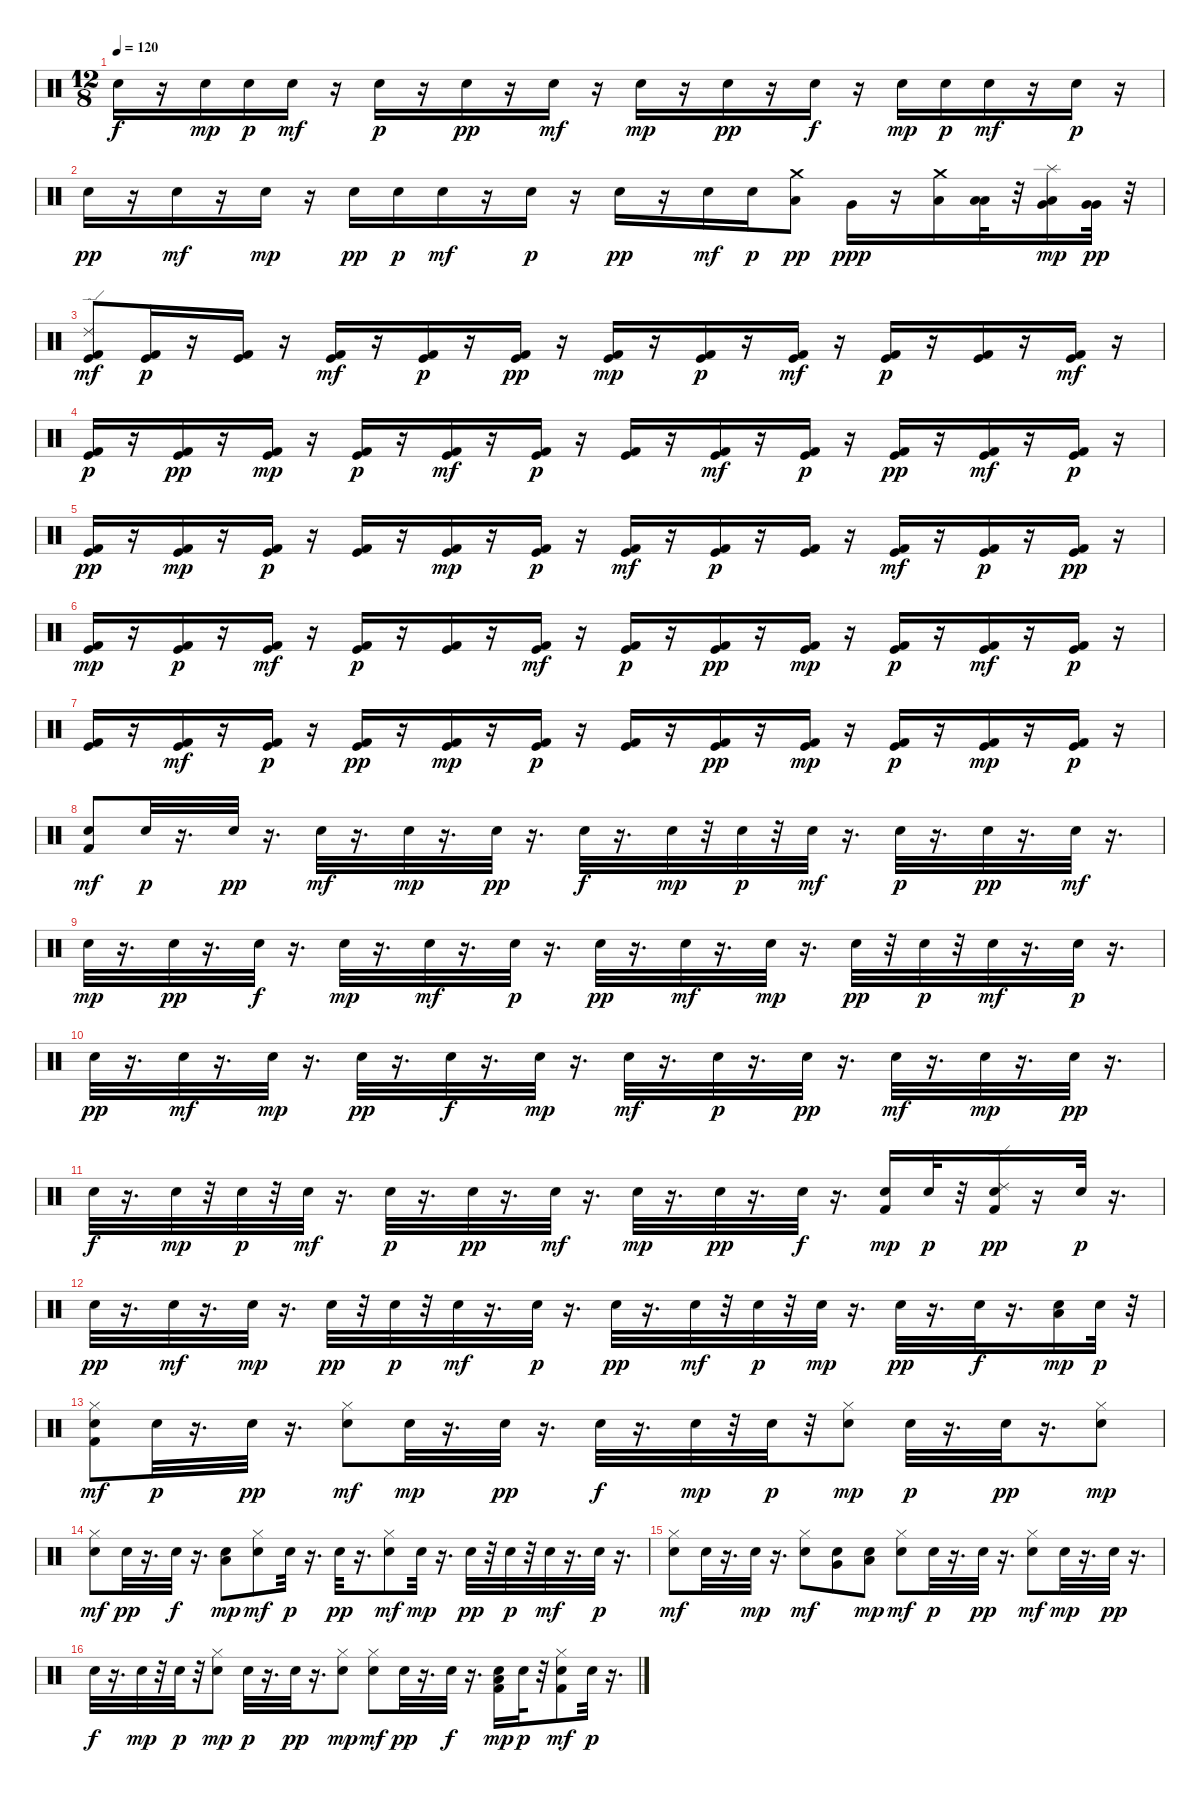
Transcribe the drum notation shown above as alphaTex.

\track "" {instrument percussion}
\staff {score}
\articulation defaults
\ts (12 8)
\tempo 120
\clef neutral
\ks c "Snare (hit) 2".16{dy f}
r.16 "Snare (hit) 2".16{dy mp} "Snare (hit) 2".16{dy p} "Snare (hit) 2".16{dy mf} r.16 "Snare (hit) 2".16{dy p} r.16 "Snare (hit) 2".16{dy pp} r.16 "Snare (hit) 2".16{dy mf} r.16 "Snare (hit) 2".16{dy mp} r.16 "Snare (hit) 2".16{dy pp} r.16 "Snare (hit) 2".16{dy f} r.16 "Snare (hit) 2".16{dy mp} "Snare (hit) 2".16{dy p} "Snare (hit) 2".16{dy mf} r.16 "Snare (hit) 2".16{dy p} r.16 |
"Snare (hit) 2".16{dy pp} r.16 "Snare (hit) 2".16{dy mf} r.16 "Snare (hit) 2".16{dy mp} r.16 "Snare (hit) 2".16{dy pp} "Snare (hit) 2".16{dy p} "Snare (hit) 2".16{dy mf} r.16 "Snare (hit) 2".16{dy p} r.16 "Snare (hit) 2".16{dy pp} r.16 "Snare (hit) 2".16{dy mf} "Snare (hit) 2".16{dy p} ("Low Tom (hit)" "Crash medium (hit)").8{dy pp} "Very Low Tom (hit)".16{dy ppp} r.16 ("Low Tom (hit)" "Crash medium (hit)").16 ("Low Tom (hit)" "Low Tom (hit)").32 r.32 ("Low Tom (hit)" "Very Low Tom (hit)" "Splash (hit)").16{dy mp} ("Very Low Tom (hit)" "Very Low Tom (hit)").32{dy pp} r.32 |
("Kick (hit) 2" "Kick (hit)" "Ride (edge) 2").8{dy mf} ("Kick (hit) 2" "Kick (hit)").16{dy p} r.16 ("Kick (hit) 2" "Kick (hit)").16 r.16 ("Kick (hit) 2" "Kick (hit)").16{dy mf} r.16 ("Kick (hit) 2" "Kick (hit)").16{dy p} r.16 ("Kick (hit) 2" "Kick (hit)").16{dy pp} r.16 ("Kick (hit) 2" "Kick (hit)").16{dy mp} r.16 ("Kick (hit) 2" "Kick (hit)").16{dy p} r.16 ("Kick (hit) 2" "Kick (hit)").16{dy mf} r.16 ("Kick (hit) 2" "Kick (hit)").16{dy p} r.16 ("Kick (hit) 2" "Kick (hit)").16 r.16 ("Kick (hit) 2" "Kick (hit)").16{dy mf} r.16 |
("Kick (hit) 2" "Kick (hit)").16{dy p} r.16 ("Kick (hit) 2" "Kick (hit)").16{dy pp} r.16 ("Kick (hit) 2" "Kick (hit)").16{dy mp} r.16 ("Kick (hit) 2" "Kick (hit)").16{dy p} r.16 ("Kick (hit) 2" "Kick (hit)").16{dy mf} r.16 ("Kick (hit) 2" "Kick (hit)").16{dy p} r.16 ("Kick (hit) 2" "Kick (hit)").16 r.16 ("Kick (hit) 2" "Kick (hit)").16{dy mf} r.16 ("Kick (hit) 2" "Kick (hit)").16{dy p} r.16 ("Kick (hit) 2" "Kick (hit)").16{dy pp} r.16 ("Kick (hit) 2" "Kick (hit)").16{dy mf} r.16 ("Kick (hit) 2" "Kick (hit)").16{dy p} r.16 |
("Kick (hit) 2" "Kick (hit)").16{dy pp} r.16 ("Kick (hit) 2" "Kick (hit)").16{dy mp} r.16 ("Kick (hit) 2" "Kick (hit)").16{dy p} r.16 ("Kick (hit) 2" "Kick (hit)").16 r.16 ("Kick (hit) 2" "Kick (hit)").16{dy mp} r.16 ("Kick (hit) 2" "Kick (hit)").16{dy p} r.16 ("Kick (hit) 2" "Kick (hit)").16{dy mf} r.16 ("Kick (hit) 2" "Kick (hit)").16{dy p} r.16 ("Kick (hit) 2" "Kick (hit)").16 r.16 ("Kick (hit) 2" "Kick (hit)").16{dy mf} r.16 ("Kick (hit) 2" "Kick (hit)").16{dy p} r.16 ("Kick (hit) 2" "Kick (hit)").16{dy pp} r.16 |
("Kick (hit) 2" "Kick (hit)").16{dy mp} r.16 ("Kick (hit) 2" "Kick (hit)").16{dy p} r.16 ("Kick (hit) 2" "Kick (hit)").16{dy mf} r.16 ("Kick (hit) 2" "Kick (hit)").16{dy p} r.16 ("Kick (hit) 2" "Kick (hit)").16 r.16 ("Kick (hit) 2" "Kick (hit)").16{dy mf} r.16 ("Kick (hit) 2" "Kick (hit)").16{dy p} r.16 ("Kick (hit) 2" "Kick (hit)").16{dy pp} r.16 ("Kick (hit) 2" "Kick (hit)").16{dy mp} r.16 ("Kick (hit) 2" "Kick (hit)").16{dy p} r.16 ("Kick (hit) 2" "Kick (hit)").16{dy mf} r.16 ("Kick (hit) 2" "Kick (hit)").16{dy p} r.16 |
("Kick (hit) 2" "Kick (hit)").16 r.16 ("Kick (hit) 2" "Kick (hit)").16{dy mf} r.16 ("Kick (hit) 2" "Kick (hit)").16{dy p} r.16 ("Kick (hit) 2" "Kick (hit)").16{dy pp} r.16 ("Kick (hit) 2" "Kick (hit)").16{dy mp} r.16 ("Kick (hit) 2" "Kick (hit)").16{dy p} r.16 ("Kick (hit) 2" "Kick (hit)").16 r.16 ("Kick (hit) 2" "Kick (hit)").16{dy pp} r.16 ("Kick (hit) 2" "Kick (hit)").16{dy mp} r.16 ("Kick (hit) 2" "Kick (hit)").16{dy p} r.16 ("Kick (hit) 2" "Kick (hit)").16{dy mp} r.16 ("Kick (hit) 2" "Kick (hit)").16{dy p} r.16 |
("Kick (hit) 2" "Snare (hit) 2").8{dy mf} "Snare (hit) 2".32{dy p} r.16{d} "Snare (hit) 2".32{dy pp} r.16{d} "Snare (hit) 2".32{dy mf} r.16{d} "Snare (hit) 2".32{dy mp} r.16{d} "Snare (hit) 2".32{dy pp} r.16{d} "Snare (hit) 2".32{dy f} r.16{d} "Snare (hit) 2".32{dy mp} r.32 "Snare (hit) 2".32{dy p} r.32 "Snare (hit) 2".32{dy mf} r.16{d} "Snare (hit) 2".32{dy p} r.16{d} "Snare (hit) 2".32{dy pp} r.16{d} "Snare (hit) 2".32{dy mf} r.16{d} |
"Snare (hit) 2".32{dy mp} r.16{d} "Snare (hit) 2".32{dy pp} r.16{d} "Snare (hit) 2".32{dy f} r.16{d} "Snare (hit) 2".32{dy mp} r.16{d} "Snare (hit) 2".32{dy mf} r.16{d} "Snare (hit) 2".32{dy p} r.16{d} "Snare (hit) 2".32{dy pp} r.16{d} "Snare (hit) 2".32{dy mf} r.16{d} "Snare (hit) 2".32{dy mp} r.16{d} "Snare (hit) 2".32{dy pp} r.32 "Snare (hit) 2".32{dy p} r.32 "Snare (hit) 2".32{dy mf} r.16{d} "Snare (hit) 2".32{dy p} r.16{d} |
"Snare (hit) 2".32{dy pp} r.16{d} "Snare (hit) 2".32{dy mf} r.16{d} "Snare (hit) 2".32{dy mp} r.16{d} "Snare (hit) 2".32{dy pp} r.16{d} "Snare (hit) 2".32{dy f} r.16{d} "Snare (hit) 2".32{dy mp} r.16{d} "Snare (hit) 2".32{dy mf} r.16{d} "Snare (hit) 2".32{dy p} r.16{d} "Snare (hit) 2".32{dy pp} r.16{d} "Snare (hit) 2".32{dy mf} r.16{d} "Snare (hit) 2".32{dy mp} r.16{d} "Snare (hit) 2".32{dy pp} r.16{d} |
"Snare (hit) 2".32{dy f} r.16{d} "Snare (hit) 2".32{dy mp} r.32 "Snare (hit) 2".32{dy p} r.32 "Snare (hit) 2".32{dy mf} r.16{d} "Snare (hit) 2".32{dy p} r.16{d} "Snare (hit) 2".32{dy pp} r.16{d} "Snare (hit) 2".32{dy mf} r.16{d} "Snare (hit) 2".32{dy mp} r.16{d} "Snare (hit) 2".32{dy pp} r.16{d} "Snare (hit) 2".32{dy f} r.16{d} ("Snare (hit) 2" "Kick (hit) 2").16{dy mp} "Snare (hit) 2".32{dy p} r.32 ("Kick (hit) 2" "Snare (hit) 2" "Ride (edge) 2").16{dy pp} r.16 "Snare (hit) 2".32{dy p} r.16{d} |
"Snare (hit) 2".32{dy pp} r.16{d} "Snare (hit) 2".32{dy mf} r.16{d} "Snare (hit) 2".32{dy mp} r.16{d} "Snare (hit) 2".32{dy pp} r.32 "Snare (hit) 2".32{dy p} r.32 "Snare (hit) 2".32{dy mf} r.16{d} "Snare (hit) 2".32{dy p} r.16{d} "Snare (hit) 2".32{dy pp} r.16{d} "Snare (hit) 2".32{dy mf} r.32 "Snare (hit) 2".32{dy p} r.32 "Snare (hit) 2".32{dy mp} r.16{d} "Snare (hit) 2".32{dy pp} r.16{d} "Snare (hit) 2".32{dy f} r.16{d} ("Snare (hit) 2" "Low Floor Tom (hit)").16{dy mp} "Snare (hit) 2".32{dy p} r.32 |
("Kick (hit) 2" "Snare (hit) 2" "Hi-Hat (closed)").8{dy mf} "Snare (hit) 2".32{dy p} r.16{d} "Snare (hit) 2".32{dy pp} r.16{d} ("Snare (hit) 2" "Hi-Hat (closed)").8{dy mf} "Snare (hit) 2".32{dy mp} r.16{d} "Snare (hit) 2".32{dy pp} r.16{d} "Snare (hit) 2".32{dy f} r.16{d} "Snare (hit) 2".32{dy mp} r.32 "Snare (hit) 2".32{dy p} r.32 ("Snare (hit) 2" "Hi-Hat (closed)").8{dy mp} "Snare (hit) 2".32{dy p} r.16{d} "Snare (hit) 2".32{dy pp} r.16{d} ("Snare (hit) 2" "Hi-Hat (closed)").8{dy mp} |
("Snare (hit) 2" "Hi-Hat (closed)").8{dy mf} "Snare (hit) 2".32{dy pp} r.16{d} "Snare (hit) 2".32{dy f} r.16{d} ("Snare (hit) 2" "Low Floor Tom (hit)").8{dy mp} ("Hi-Hat (closed)" "Snare (hit) 2").8{dy mf} "Snare (hit) 2".32{dy p} r.16{d} "Snare (hit) 2".32{dy pp} r.16{d} ("Snare (hit) 2" "Hi-Hat (closed)").8{dy mf} "Snare (hit) 2".32{dy mp} r.16{d} "Snare (hit) 2".32{dy pp} r.32 "Snare (hit) 2".32{dy p} r.32 "Snare (hit) 2".32{dy mf} r.16{d} "Snare (hit) 2".32{dy p} r.16{d} |
("Snare (hit) 2" "Hi-Hat (closed)").8{dy mf} "Snare (hit) 2".32 r.16{d} "Snare (hit) 2".32{dy mp} r.16{d} ("Snare (hit) 2" "Hi-Hat (closed)").8{dy mf} ("Snare (hit) 2" "Very Low Tom (hit)").8 ("Snare (hit) 2" "Low Floor Tom (hit)").8{dy mp} ("Snare (hit) 2" "Hi-Hat (closed)").8{dy mf} "Snare (hit) 2".32{dy p} r.16{d} "Snare (hit) 2".32{dy pp} r.16{d} ("Snare (hit) 2" "Hi-Hat (closed)").8{dy mf} "Snare (hit) 2".32{dy mp} r.16{d} "Snare (hit) 2".32{dy pp} r.16{d} |
"Snare (hit) 2".32{dy f} r.16{d} "Snare (hit) 2".32{dy mp} r.32 "Snare (hit) 2".32{dy p} r.32 ("Snare (hit) 2" "Hi-Hat (closed)").8{dy mp} "Snare (hit) 2".32{dy p} r.16{d} "Snare (hit) 2".32{dy pp} r.16{d} ("Snare (hit) 2" "Hi-Hat (closed)").8{dy mp} ("Snare (hit) 2" "Hi-Hat (closed)").8{dy mf} "Snare (hit) 2".32{dy pp} r.16{d} "Snare (hit) 2".32{dy f} r.16{d} ("Kick (hit) 2" "Snare (hit) 2" "Low Floor Tom (hit)").16{dy mp} "Snare (hit) 2".32{dy p} r.32 ("Hi-Hat (closed)" "Snare (hit) 2" "Kick (hit) 2").8{dy mf} "Snare (hit) 2".32{dy p} r.16{d}
